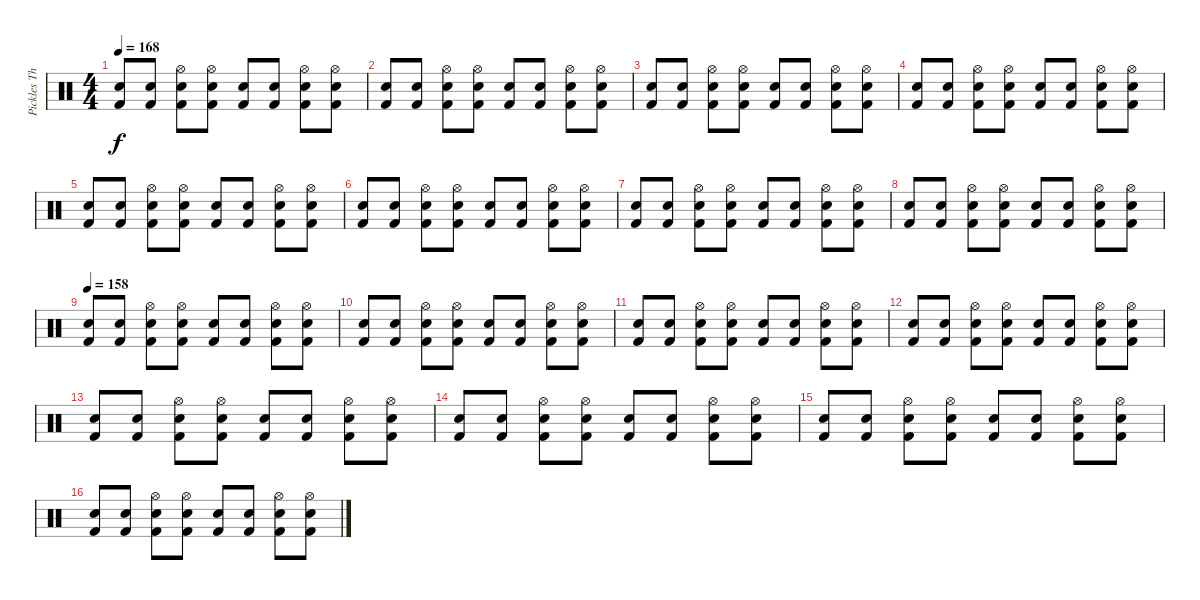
\track ("Pickles The Drummer" "Pickles Th") {instrument percussion}
\staff {score}
\articulation defaults
\ts (4 4)
\tempo 168
\clef neutral
\ks c
("Snare (hit) 2" "Kick (hit) 2").8{dy f} ("Snare (hit) 2" "Kick (hit) 2").8 ("Snare (hit) 2" "Kick (hit) 2" "Hi-Hat (open)").8 ("Snare (hit) 2" "Kick (hit) 2" "Hi-Hat (open)").8 ("Snare (hit) 2" "Kick (hit) 2").8 ("Snare (hit) 2" "Kick (hit) 2").8 ("Snare (hit) 2" "Kick (hit) 2" "Hi-Hat (open)").8 ("Snare (hit) 2" "Kick (hit) 2" "Hi-Hat (open)").8 |
("Snare (hit) 2" "Kick (hit) 2").8 ("Snare (hit) 2" "Kick (hit) 2").8 ("Snare (hit) 2" "Kick (hit) 2" "Hi-Hat (open)").8 ("Snare (hit) 2" "Kick (hit) 2" "Hi-Hat (open)").8 ("Snare (hit) 2" "Kick (hit) 2").8 ("Snare (hit) 2" "Kick (hit) 2").8 ("Snare (hit) 2" "Kick (hit) 2" "Hi-Hat (open)").8 ("Snare (hit) 2" "Kick (hit) 2" "Hi-Hat (open)").8 |
("Snare (hit) 2" "Kick (hit) 2").8 ("Snare (hit) 2" "Kick (hit) 2").8 ("Snare (hit) 2" "Kick (hit) 2" "Hi-Hat (open)").8 ("Snare (hit) 2" "Kick (hit) 2" "Hi-Hat (open)").8 ("Snare (hit) 2" "Kick (hit) 2").8 ("Snare (hit) 2" "Kick (hit) 2").8 ("Snare (hit) 2" "Kick (hit) 2" "Hi-Hat (open)").8 ("Snare (hit) 2" "Kick (hit) 2" "Hi-Hat (open)").8 |
("Snare (hit) 2" "Kick (hit) 2").8 ("Snare (hit) 2" "Kick (hit) 2").8 ("Snare (hit) 2" "Kick (hit) 2" "Hi-Hat (open)").8 ("Snare (hit) 2" "Kick (hit) 2" "Hi-Hat (open)").8 ("Snare (hit) 2" "Kick (hit) 2").8 ("Snare (hit) 2" "Kick (hit) 2").8 ("Snare (hit) 2" "Kick (hit) 2" "Hi-Hat (open)").8 ("Snare (hit) 2" "Kick (hit) 2" "Hi-Hat (open)").8 |
("Snare (hit) 2" "Kick (hit) 2").8 ("Snare (hit) 2" "Kick (hit) 2").8 ("Snare (hit) 2" "Kick (hit) 2" "Hi-Hat (open)").8 ("Snare (hit) 2" "Kick (hit) 2" "Hi-Hat (open)").8 ("Snare (hit) 2" "Kick (hit) 2").8 ("Snare (hit) 2" "Kick (hit) 2").8 ("Snare (hit) 2" "Kick (hit) 2" "Hi-Hat (open)").8 ("Snare (hit) 2" "Kick (hit) 2" "Hi-Hat (open)").8 |
("Snare (hit) 2" "Kick (hit) 2").8 ("Snare (hit) 2" "Kick (hit) 2").8 ("Snare (hit) 2" "Kick (hit) 2" "Hi-Hat (open)").8 ("Snare (hit) 2" "Kick (hit) 2" "Hi-Hat (open)").8 ("Snare (hit) 2" "Kick (hit) 2").8 ("Snare (hit) 2" "Kick (hit) 2").8 ("Snare (hit) 2" "Kick (hit) 2" "Hi-Hat (open)").8 ("Snare (hit) 2" "Kick (hit) 2" "Hi-Hat (open)").8 |
("Snare (hit) 2" "Kick (hit) 2").8 ("Snare (hit) 2" "Kick (hit) 2").8 ("Snare (hit) 2" "Kick (hit) 2" "Hi-Hat (open)").8 ("Snare (hit) 2" "Kick (hit) 2" "Hi-Hat (open)").8 ("Snare (hit) 2" "Kick (hit) 2").8 ("Snare (hit) 2" "Kick (hit) 2").8 ("Snare (hit) 2" "Kick (hit) 2" "Hi-Hat (open)").8 ("Snare (hit) 2" "Kick (hit) 2" "Hi-Hat (open)").8 |
("Snare (hit) 2" "Kick (hit) 2").8 ("Snare (hit) 2" "Kick (hit) 2").8 ("Snare (hit) 2" "Kick (hit) 2" "Hi-Hat (open)").8 ("Snare (hit) 2" "Kick (hit) 2" "Hi-Hat (open)").8 ("Snare (hit) 2" "Kick (hit) 2").8 ("Snare (hit) 2" "Kick (hit) 2").8 ("Snare (hit) 2" "Kick (hit) 2" "Hi-Hat (open)").8 ("Snare (hit) 2" "Kick (hit) 2" "Hi-Hat (open)").8 |
\tempo 158
("Snare (hit) 2" "Kick (hit) 2").8 ("Snare (hit) 2" "Kick (hit) 2").8 ("Snare (hit) 2" "Kick (hit) 2" "Hi-Hat (open)").8 ("Snare (hit) 2" "Kick (hit) 2" "Hi-Hat (open)").8 ("Snare (hit) 2" "Kick (hit) 2").8 ("Snare (hit) 2" "Kick (hit) 2").8 ("Snare (hit) 2" "Kick (hit) 2" "Hi-Hat (open)").8 ("Snare (hit) 2" "Kick (hit) 2" "Hi-Hat (open)").8 |
("Snare (hit) 2" "Kick (hit) 2").8 ("Snare (hit) 2" "Kick (hit) 2").8 ("Snare (hit) 2" "Kick (hit) 2" "Hi-Hat (open)").8 ("Snare (hit) 2" "Kick (hit) 2" "Hi-Hat (open)").8 ("Snare (hit) 2" "Kick (hit) 2").8 ("Snare (hit) 2" "Kick (hit) 2").8 ("Snare (hit) 2" "Kick (hit) 2" "Hi-Hat (open)").8 ("Snare (hit) 2" "Kick (hit) 2" "Hi-Hat (open)").8 |
("Snare (hit) 2" "Kick (hit) 2").8 ("Snare (hit) 2" "Kick (hit) 2").8 ("Snare (hit) 2" "Kick (hit) 2" "Hi-Hat (open)").8 ("Snare (hit) 2" "Kick (hit) 2" "Hi-Hat (open)").8 ("Snare (hit) 2" "Kick (hit) 2").8 ("Snare (hit) 2" "Kick (hit) 2").8 ("Snare (hit) 2" "Kick (hit) 2" "Hi-Hat (open)").8 ("Snare (hit) 2" "Kick (hit) 2" "Hi-Hat (open)").8 |
("Snare (hit) 2" "Kick (hit) 2").8 ("Snare (hit) 2" "Kick (hit) 2").8 ("Snare (hit) 2" "Kick (hit) 2" "Hi-Hat (open)").8 ("Snare (hit) 2" "Kick (hit) 2" "Hi-Hat (open)").8 ("Snare (hit) 2" "Kick (hit) 2").8 ("Snare (hit) 2" "Kick (hit) 2").8 ("Snare (hit) 2" "Kick (hit) 2" "Hi-Hat (open)").8 ("Snare (hit) 2" "Kick (hit) 2" "Hi-Hat (open)").8 |
("Snare (hit) 2" "Kick (hit) 2").8 ("Snare (hit) 2" "Kick (hit) 2").8 ("Snare (hit) 2" "Kick (hit) 2" "Hi-Hat (open)").8 ("Snare (hit) 2" "Kick (hit) 2" "Hi-Hat (open)").8 ("Snare (hit) 2" "Kick (hit) 2").8 ("Snare (hit) 2" "Kick (hit) 2").8 ("Snare (hit) 2" "Kick (hit) 2" "Hi-Hat (open)").8 ("Snare (hit) 2" "Kick (hit) 2" "Hi-Hat (open)").8 |
("Snare (hit) 2" "Kick (hit) 2").8 ("Snare (hit) 2" "Kick (hit) 2").8 ("Snare (hit) 2" "Kick (hit) 2" "Hi-Hat (open)").8 ("Snare (hit) 2" "Kick (hit) 2" "Hi-Hat (open)").8 ("Snare (hit) 2" "Kick (hit) 2").8 ("Snare (hit) 2" "Kick (hit) 2").8 ("Snare (hit) 2" "Kick (hit) 2" "Hi-Hat (open)").8 ("Snare (hit) 2" "Kick (hit) 2" "Hi-Hat (open)").8 |
("Snare (hit) 2" "Kick (hit) 2").8 ("Snare (hit) 2" "Kick (hit) 2").8 ("Snare (hit) 2" "Kick (hit) 2" "Hi-Hat (open)").8 ("Snare (hit) 2" "Kick (hit) 2" "Hi-Hat (open)").8 ("Snare (hit) 2" "Kick (hit) 2").8 ("Snare (hit) 2" "Kick (hit) 2").8 ("Snare (hit) 2" "Kick (hit) 2" "Hi-Hat (open)").8 ("Snare (hit) 2" "Kick (hit) 2" "Hi-Hat (open)").8 |
("Snare (hit) 2" "Kick (hit) 2").8 ("Snare (hit) 2" "Kick (hit) 2").8 ("Snare (hit) 2" "Kick (hit) 2" "Hi-Hat (open)").8 ("Snare (hit) 2" "Kick (hit) 2" "Hi-Hat (open)").8 ("Snare (hit) 2" "Kick (hit) 2").8 ("Snare (hit) 2" "Kick (hit) 2").8 ("Snare (hit) 2" "Kick (hit) 2" "Hi-Hat (open)").8 ("Snare (hit) 2" "Kick (hit) 2" "Hi-Hat (open)").8
